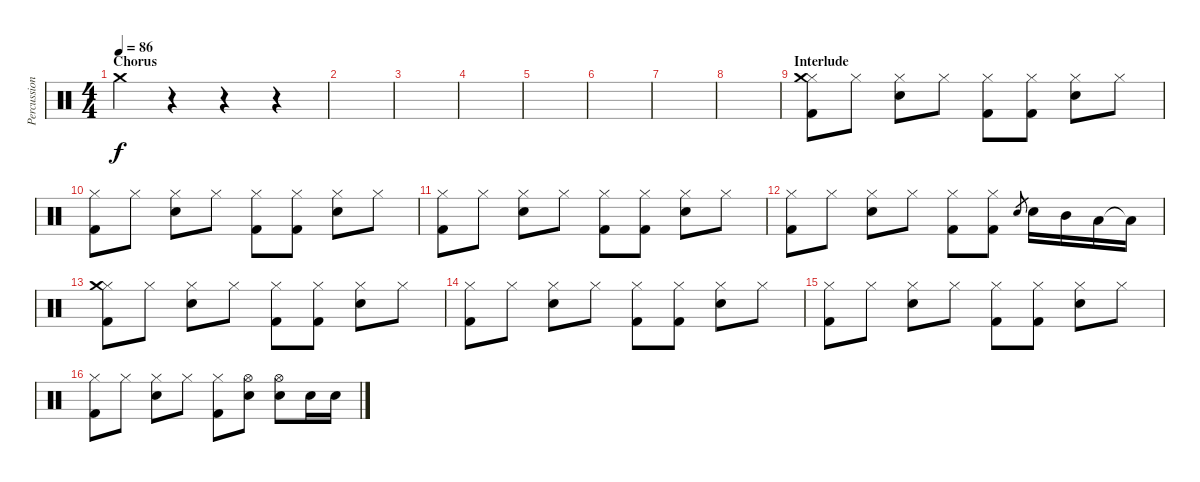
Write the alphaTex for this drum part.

\track ("Percussion" "Percussion") {instrument percussion}
\staff {score}
\articulation defaults
\ts (4 4)
\section ("" "Chorus")
\tempo 86
\clef neutral
\ks c "Crash medium (hit)".4{dy f}
r.4 r.4 r.4 |
|
|
|
|
|
|
|
\section ("" "Interlude")
("Kick (hit) 2" "Hi-Hat (closed)" "Crash medium (hit)").8 "Hi-Hat (closed)".8 ("Electric Snare (hit)" "Hi-Hat (closed)").8 "Hi-Hat (closed)".8 ("Kick (hit) 2" "Hi-Hat (closed)").8 ("Kick (hit) 2" "Hi-Hat (closed)").8 ("Electric Snare (hit)" "Hi-Hat (closed)").8 "Hi-Hat (closed)".8 |
("Kick (hit) 2" "Hi-Hat (closed)").8 "Hi-Hat (closed)".8 ("Electric Snare (hit)" "Hi-Hat (closed)").8 "Hi-Hat (closed)".8 ("Kick (hit) 2" "Hi-Hat (closed)").8 ("Kick (hit) 2" "Hi-Hat (closed)").8 ("Electric Snare (hit)" "Hi-Hat (closed)").8 "Hi-Hat (closed)".8 |
("Kick (hit) 2" "Hi-Hat (closed)").8 "Hi-Hat (closed)".8 ("Electric Snare (hit)" "Hi-Hat (closed)").8 "Hi-Hat (closed)".8 ("Kick (hit) 2" "Hi-Hat (closed)").8 ("Kick (hit) 2" "Hi-Hat (closed)").8 ("Electric Snare (hit)" "Hi-Hat (closed)").8 "Hi-Hat (closed)".8 |
("Kick (hit) 2" "Hi-Hat (closed)").8 "Hi-Hat (closed)".8 ("Electric Snare (hit)" "Hi-Hat (closed)").8 "Hi-Hat (closed)".8 ("Kick (hit) 2" "Hi-Hat (closed)").8 ("Kick (hit) 2" "Hi-Hat (closed)").8 "Electric Snare (hit)".8{gr} "Electric Snare (hit)".16 "Mid Tom (hit)".16 "Low Tom (hit)".16 "Low Tom (hit)"{t}.16 |
("Kick (hit) 2" "Hi-Hat (closed)" "Crash medium (hit)").8 "Hi-Hat (closed)".8 ("Electric Snare (hit)" "Hi-Hat (closed)").8 "Hi-Hat (closed)".8 ("Kick (hit) 2" "Hi-Hat (closed)").8 ("Kick (hit) 2" "Hi-Hat (closed)").8 ("Electric Snare (hit)" "Hi-Hat (closed)").8 "Hi-Hat (closed)".8 |
("Kick (hit) 2" "Hi-Hat (closed)").8 "Hi-Hat (closed)".8 ("Electric Snare (hit)" "Hi-Hat (closed)").8 "Hi-Hat (closed)".8 ("Kick (hit) 2" "Hi-Hat (closed)").8 ("Kick (hit) 2" "Hi-Hat (closed)").8 ("Electric Snare (hit)" "Hi-Hat (closed)").8 "Hi-Hat (closed)".8 |
("Kick (hit) 2" "Hi-Hat (closed)").8 "Hi-Hat (closed)".8 ("Electric Snare (hit)" "Hi-Hat (closed)").8 "Hi-Hat (closed)".8 ("Kick (hit) 2" "Hi-Hat (closed)").8 ("Kick (hit) 2" "Hi-Hat (closed)").8 ("Electric Snare (hit)" "Hi-Hat (closed)").8 "Hi-Hat (closed)".8 |
("Kick (hit) 2" "Hi-Hat (closed)").8 "Hi-Hat (closed)".8 ("Electric Snare (hit)" "Hi-Hat (closed)").8 "Hi-Hat (closed)".8 ("Kick (hit) 2" "Hi-Hat (closed)").8 ("Electric Snare (hit)" "Hi-Hat (open)").8 ("Electric Snare (hit)" "Hi-Hat (open)").8 "Electric Snare (hit)".16 "Electric Snare (hit)".16
